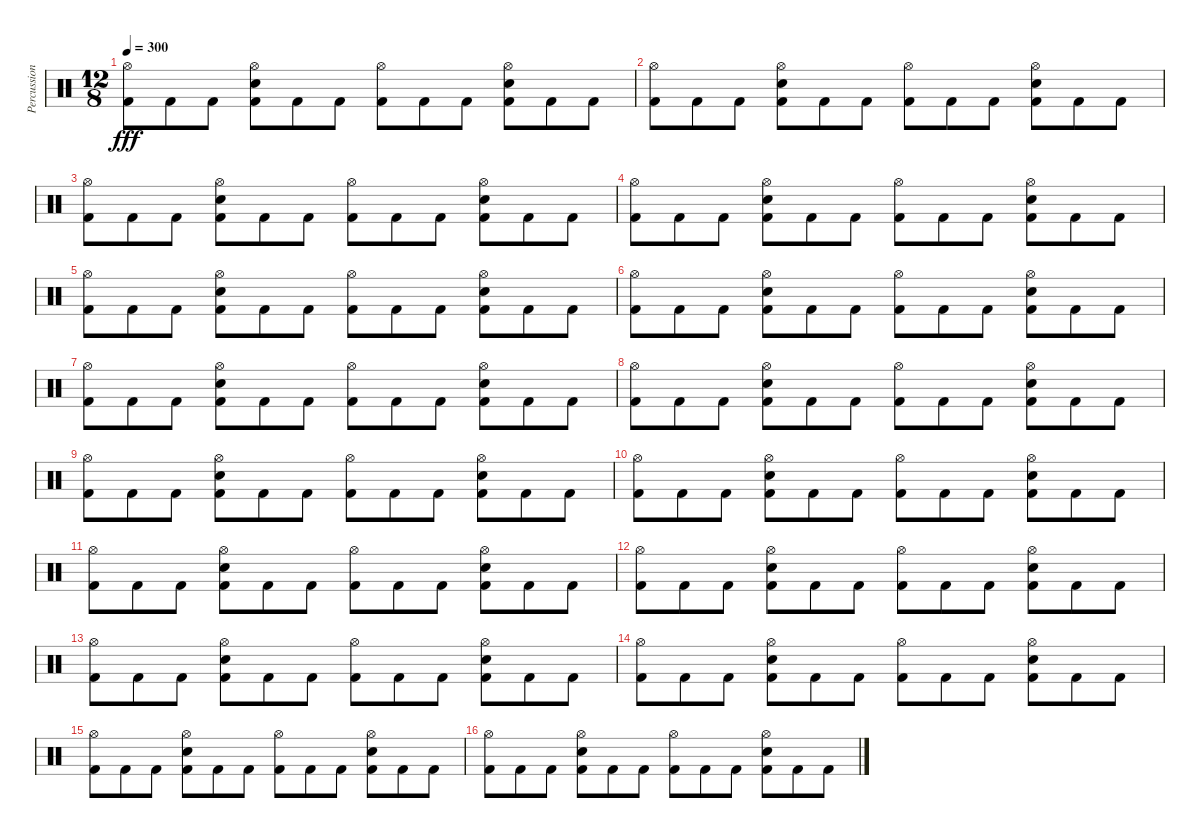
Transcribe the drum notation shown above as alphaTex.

\track ("Percussion" "Percussion") {instrument percussion}
\staff {score}
\articulation defaults
\ts (12 8)
\tempo 300
\clef neutral
\ks c
("Hi-Hat (open)" "Kick (hit) 2").8{dy fff} "Kick (hit) 2".8 "Kick (hit) 2".8 ("Hi-Hat (open)" "Snare (hit) 2" "Kick (hit) 2").8 "Kick (hit) 2".8 "Kick (hit) 2".8 ("Hi-Hat (open)" "Kick (hit) 2").8 "Kick (hit) 2".8 "Kick (hit) 2".8 ("Hi-Hat (open)" "Snare (hit) 2" "Kick (hit) 2").8 "Kick (hit) 2".8 "Kick (hit) 2".8 |
("Hi-Hat (open)" "Kick (hit) 2").8 "Kick (hit) 2".8 "Kick (hit) 2".8 ("Hi-Hat (open)" "Snare (hit) 2" "Kick (hit) 2").8 "Kick (hit) 2".8 "Kick (hit) 2".8 ("Hi-Hat (open)" "Kick (hit) 2").8 "Kick (hit) 2".8 "Kick (hit) 2".8 ("Hi-Hat (open)" "Snare (hit) 2" "Kick (hit) 2").8 "Kick (hit) 2".8 "Kick (hit) 2".8 |
("Hi-Hat (open)" "Kick (hit) 2").8 "Kick (hit) 2".8 "Kick (hit) 2".8 ("Hi-Hat (open)" "Snare (hit) 2" "Kick (hit) 2").8 "Kick (hit) 2".8 "Kick (hit) 2".8 ("Hi-Hat (open)" "Kick (hit) 2").8 "Kick (hit) 2".8 "Kick (hit) 2".8 ("Hi-Hat (open)" "Snare (hit) 2" "Kick (hit) 2").8 "Kick (hit) 2".8 "Kick (hit) 2".8 |
("Hi-Hat (open)" "Kick (hit) 2").8 "Kick (hit) 2".8 "Kick (hit) 2".8 ("Hi-Hat (open)" "Snare (hit) 2" "Kick (hit) 2").8 "Kick (hit) 2".8 "Kick (hit) 2".8 ("Hi-Hat (open)" "Kick (hit) 2").8 "Kick (hit) 2".8 "Kick (hit) 2".8 ("Hi-Hat (open)" "Snare (hit) 2" "Kick (hit) 2").8 "Kick (hit) 2".8 "Kick (hit) 2".8 |
("Hi-Hat (open)" "Kick (hit) 2").8 "Kick (hit) 2".8 "Kick (hit) 2".8 ("Hi-Hat (open)" "Snare (hit) 2" "Kick (hit) 2").8 "Kick (hit) 2".8 "Kick (hit) 2".8 ("Hi-Hat (open)" "Kick (hit) 2").8 "Kick (hit) 2".8 "Kick (hit) 2".8 ("Hi-Hat (open)" "Snare (hit) 2" "Kick (hit) 2").8 "Kick (hit) 2".8 "Kick (hit) 2".8 |
("Hi-Hat (open)" "Kick (hit) 2").8 "Kick (hit) 2".8 "Kick (hit) 2".8 ("Hi-Hat (open)" "Snare (hit) 2" "Kick (hit) 2").8 "Kick (hit) 2".8 "Kick (hit) 2".8 ("Hi-Hat (open)" "Kick (hit) 2").8 "Kick (hit) 2".8 "Kick (hit) 2".8 ("Hi-Hat (open)" "Snare (hit) 2" "Kick (hit) 2").8 "Kick (hit) 2".8 "Kick (hit) 2".8 |
("Hi-Hat (open)" "Kick (hit) 2").8 "Kick (hit) 2".8 "Kick (hit) 2".8 ("Hi-Hat (open)" "Snare (hit) 2" "Kick (hit) 2").8 "Kick (hit) 2".8 "Kick (hit) 2".8 ("Hi-Hat (open)" "Kick (hit) 2").8 "Kick (hit) 2".8 "Kick (hit) 2".8 ("Hi-Hat (open)" "Snare (hit) 2" "Kick (hit) 2").8 "Kick (hit) 2".8 "Kick (hit) 2".8 |
("Hi-Hat (open)" "Kick (hit) 2").8 "Kick (hit) 2".8 "Kick (hit) 2".8 ("Hi-Hat (open)" "Snare (hit) 2" "Kick (hit) 2").8 "Kick (hit) 2".8 "Kick (hit) 2".8 ("Hi-Hat (open)" "Kick (hit) 2").8 "Kick (hit) 2".8 "Kick (hit) 2".8 ("Hi-Hat (open)" "Snare (hit) 2" "Kick (hit) 2").8 "Kick (hit) 2".8 "Kick (hit) 2".8 |
("Hi-Hat (open)" "Kick (hit) 2").8 "Kick (hit) 2".8 "Kick (hit) 2".8 ("Hi-Hat (open)" "Snare (hit) 2" "Kick (hit) 2").8 "Kick (hit) 2".8 "Kick (hit) 2".8 ("Hi-Hat (open)" "Kick (hit) 2").8 "Kick (hit) 2".8 "Kick (hit) 2".8 ("Hi-Hat (open)" "Snare (hit) 2" "Kick (hit) 2").8 "Kick (hit) 2".8 "Kick (hit) 2".8 |
("Hi-Hat (open)" "Kick (hit) 2").8 "Kick (hit) 2".8 "Kick (hit) 2".8 ("Hi-Hat (open)" "Snare (hit) 2" "Kick (hit) 2").8 "Kick (hit) 2".8 "Kick (hit) 2".8 ("Hi-Hat (open)" "Kick (hit) 2").8 "Kick (hit) 2".8 "Kick (hit) 2".8 ("Hi-Hat (open)" "Snare (hit) 2" "Kick (hit) 2").8 "Kick (hit) 2".8 "Kick (hit) 2".8 |
("Hi-Hat (open)" "Kick (hit) 2").8 "Kick (hit) 2".8 "Kick (hit) 2".8 ("Hi-Hat (open)" "Snare (hit) 2" "Kick (hit) 2").8 "Kick (hit) 2".8 "Kick (hit) 2".8 ("Hi-Hat (open)" "Kick (hit) 2").8 "Kick (hit) 2".8 "Kick (hit) 2".8 ("Hi-Hat (open)" "Snare (hit) 2" "Kick (hit) 2").8 "Kick (hit) 2".8 "Kick (hit) 2".8 |
("Hi-Hat (open)" "Kick (hit) 2").8 "Kick (hit) 2".8 "Kick (hit) 2".8 ("Hi-Hat (open)" "Snare (hit) 2" "Kick (hit) 2").8 "Kick (hit) 2".8 "Kick (hit) 2".8 ("Hi-Hat (open)" "Kick (hit) 2").8 "Kick (hit) 2".8 "Kick (hit) 2".8 ("Hi-Hat (open)" "Snare (hit) 2" "Kick (hit) 2").8 "Kick (hit) 2".8 "Kick (hit) 2".8 |
("Hi-Hat (open)" "Kick (hit) 2").8 "Kick (hit) 2".8 "Kick (hit) 2".8 ("Hi-Hat (open)" "Snare (hit) 2" "Kick (hit) 2").8 "Kick (hit) 2".8 "Kick (hit) 2".8 ("Hi-Hat (open)" "Kick (hit) 2").8 "Kick (hit) 2".8 "Kick (hit) 2".8 ("Hi-Hat (open)" "Snare (hit) 2" "Kick (hit) 2").8 "Kick (hit) 2".8 "Kick (hit) 2".8 |
("Hi-Hat (open)" "Kick (hit) 2").8 "Kick (hit) 2".8 "Kick (hit) 2".8 ("Hi-Hat (open)" "Snare (hit) 2" "Kick (hit) 2").8 "Kick (hit) 2".8 "Kick (hit) 2".8 ("Hi-Hat (open)" "Kick (hit) 2").8 "Kick (hit) 2".8 "Kick (hit) 2".8 ("Hi-Hat (open)" "Snare (hit) 2" "Kick (hit) 2").8 "Kick (hit) 2".8 "Kick (hit) 2".8 |
("Hi-Hat (open)" "Kick (hit) 2").8 "Kick (hit) 2".8 "Kick (hit) 2".8 ("Hi-Hat (open)" "Snare (hit) 2" "Kick (hit) 2").8 "Kick (hit) 2".8 "Kick (hit) 2".8 ("Hi-Hat (open)" "Kick (hit) 2").8 "Kick (hit) 2".8 "Kick (hit) 2".8 ("Hi-Hat (open)" "Snare (hit) 2" "Kick (hit) 2").8 "Kick (hit) 2".8 "Kick (hit) 2".8 |
("Hi-Hat (open)" "Kick (hit) 2").8 "Kick (hit) 2".8 "Kick (hit) 2".8 ("Hi-Hat (open)" "Snare (hit) 2" "Kick (hit) 2").8 "Kick (hit) 2".8 "Kick (hit) 2".8 ("Hi-Hat (open)" "Kick (hit) 2").8 "Kick (hit) 2".8 "Kick (hit) 2".8 ("Hi-Hat (open)" "Snare (hit) 2" "Kick (hit) 2").8 "Kick (hit) 2".8 "Kick (hit) 2".8
